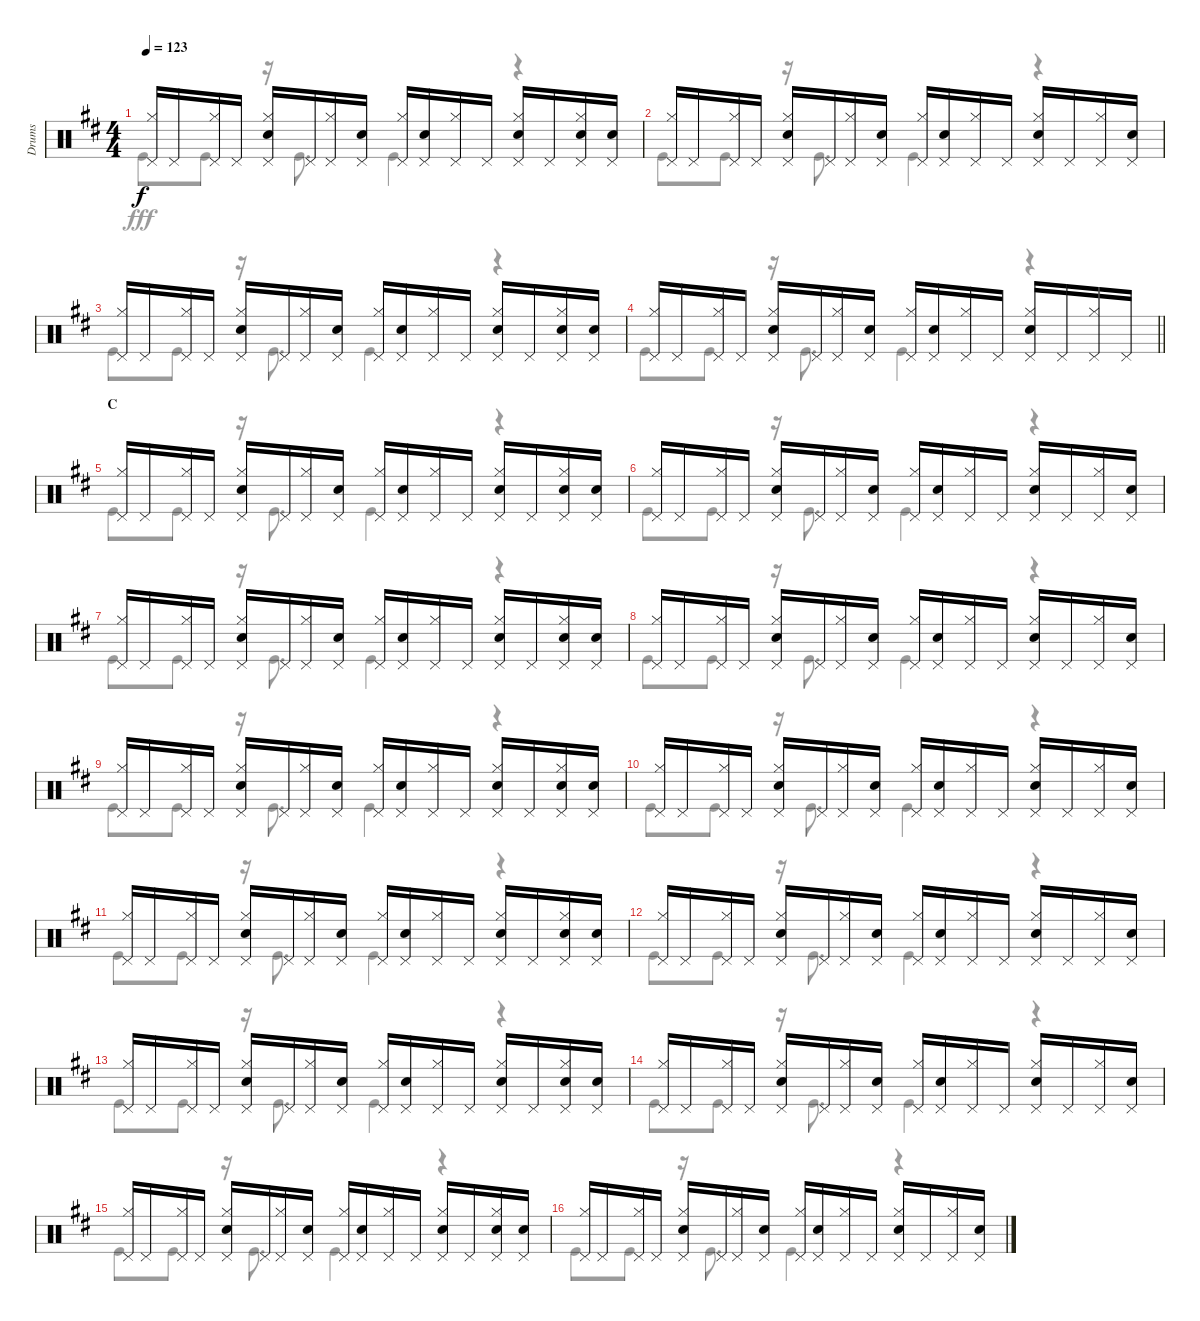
\track ("Drums" "Drums") {instrument percussion}
\staff {score}
\articulation defaults
\voice
\ts (4 4)
\tempo 123
\clef neutral
\ks d
("Hi-Hat (closed)" "Pedal Hi-Hat (hit)").16{dy f} "Pedal Hi-Hat (hit)".16 ("Hi-Hat (closed)" "Pedal Hi-Hat (hit)").16 "Pedal Hi-Hat (hit)".16 ("Hi-Hat (closed)" "Snare (hit) 2" "Pedal Hi-Hat (hit)").16 "Pedal Hi-Hat (hit)".16 ("Hi-Hat (closed)" "Pedal Hi-Hat (hit)").16 ("Pedal Hi-Hat (hit)" "Snare (hit) 2").16 ("Hi-Hat (closed)" "Pedal Hi-Hat (hit)").16 ("Pedal Hi-Hat (hit)" "Snare (hit) 2").16 ("Hi-Hat (closed)" "Pedal Hi-Hat (hit)").16 "Pedal Hi-Hat (hit)".16 ("Hi-Hat (closed)" "Snare (hit) 2" "Pedal Hi-Hat (hit)").16 "Pedal Hi-Hat (hit)".16 ("Hi-Hat (closed)" "Snare (hit) 2" "Pedal Hi-Hat (hit)").16 ("Pedal Hi-Hat (hit)" "Snare (hit) 2").16 |
("Hi-Hat (closed)" "Pedal Hi-Hat (hit)").16 "Pedal Hi-Hat (hit)".16 ("Hi-Hat (closed)" "Pedal Hi-Hat (hit)").16 "Pedal Hi-Hat (hit)".16 ("Hi-Hat (closed)" "Snare (hit) 2" "Pedal Hi-Hat (hit)").16 "Pedal Hi-Hat (hit)".16 ("Hi-Hat (closed)" "Pedal Hi-Hat (hit)").16 ("Pedal Hi-Hat (hit)" "Snare (hit) 2").16 ("Hi-Hat (closed)" "Pedal Hi-Hat (hit)").16 ("Pedal Hi-Hat (hit)" "Snare (hit) 2").16 ("Hi-Hat (closed)" "Pedal Hi-Hat (hit)").16 "Pedal Hi-Hat (hit)".16 ("Hi-Hat (closed)" "Snare (hit) 2" "Pedal Hi-Hat (hit)").16 "Pedal Hi-Hat (hit)".16 ("Hi-Hat (closed)" "Pedal Hi-Hat (hit)").16 ("Pedal Hi-Hat (hit)" "Snare (hit) 2").16 |
("Hi-Hat (closed)" "Pedal Hi-Hat (hit)").16 "Pedal Hi-Hat (hit)".16 ("Hi-Hat (closed)" "Pedal Hi-Hat (hit)").16 "Pedal Hi-Hat (hit)".16 ("Hi-Hat (closed)" "Snare (hit) 2" "Pedal Hi-Hat (hit)").16 "Pedal Hi-Hat (hit)".16 ("Hi-Hat (closed)" "Pedal Hi-Hat (hit)").16 ("Pedal Hi-Hat (hit)" "Snare (hit) 2").16 ("Hi-Hat (closed)" "Pedal Hi-Hat (hit)").16 ("Pedal Hi-Hat (hit)" "Snare (hit) 2").16 ("Hi-Hat (closed)" "Pedal Hi-Hat (hit)").16 "Pedal Hi-Hat (hit)".16 ("Hi-Hat (closed)" "Snare (hit) 2" "Pedal Hi-Hat (hit)").16 "Pedal Hi-Hat (hit)".16 ("Hi-Hat (closed)" "Snare (hit) 2" "Pedal Hi-Hat (hit)").16 ("Pedal Hi-Hat (hit)" "Snare (hit) 2").16 |
\barLineRight lightlight
("Hi-Hat (closed)" "Pedal Hi-Hat (hit)").16 "Pedal Hi-Hat (hit)".16 ("Hi-Hat (closed)" "Pedal Hi-Hat (hit)").16 "Pedal Hi-Hat (hit)".16 ("Hi-Hat (closed)" "Snare (hit) 2" "Pedal Hi-Hat (hit)").16 "Pedal Hi-Hat (hit)".16 ("Hi-Hat (closed)" "Pedal Hi-Hat (hit)").16 ("Pedal Hi-Hat (hit)" "Snare (hit) 2").16 ("Hi-Hat (closed)" "Pedal Hi-Hat (hit)").16 ("Pedal Hi-Hat (hit)" "Snare (hit) 2").16 ("Hi-Hat (closed)" "Pedal Hi-Hat (hit)").16 "Pedal Hi-Hat (hit)".16 ("Hi-Hat (closed)" "Snare (hit) 2" "Pedal Hi-Hat (hit)").16 "Pedal Hi-Hat (hit)".16 ("Hi-Hat (closed)" "Pedal Hi-Hat (hit)").16 "Pedal Hi-Hat (hit)".16 |
\section ("" "C")
("Hi-Hat (closed)" "Pedal Hi-Hat (hit)").16 "Pedal Hi-Hat (hit)".16 ("Hi-Hat (closed)" "Pedal Hi-Hat (hit)").16 "Pedal Hi-Hat (hit)".16 ("Hi-Hat (closed)" "Snare (hit) 2" "Pedal Hi-Hat (hit)").16 "Pedal Hi-Hat (hit)".16 ("Hi-Hat (closed)" "Pedal Hi-Hat (hit)").16 ("Pedal Hi-Hat (hit)" "Snare (hit) 2").16 ("Hi-Hat (closed)" "Pedal Hi-Hat (hit)").16 ("Pedal Hi-Hat (hit)" "Snare (hit) 2").16 ("Hi-Hat (closed)" "Pedal Hi-Hat (hit)").16 "Pedal Hi-Hat (hit)".16 ("Hi-Hat (closed)" "Snare (hit) 2" "Pedal Hi-Hat (hit)").16 "Pedal Hi-Hat (hit)".16 ("Hi-Hat (closed)" "Snare (hit) 2" "Pedal Hi-Hat (hit)").16 ("Pedal Hi-Hat (hit)" "Snare (hit) 2").16 |
("Hi-Hat (closed)" "Pedal Hi-Hat (hit)").16 "Pedal Hi-Hat (hit)".16 ("Hi-Hat (closed)" "Pedal Hi-Hat (hit)").16 "Pedal Hi-Hat (hit)".16 ("Hi-Hat (closed)" "Snare (hit) 2" "Pedal Hi-Hat (hit)").16 "Pedal Hi-Hat (hit)".16 ("Hi-Hat (closed)" "Pedal Hi-Hat (hit)").16 ("Pedal Hi-Hat (hit)" "Snare (hit) 2").16 ("Hi-Hat (closed)" "Pedal Hi-Hat (hit)").16 ("Pedal Hi-Hat (hit)" "Snare (hit) 2").16 ("Hi-Hat (closed)" "Pedal Hi-Hat (hit)").16 "Pedal Hi-Hat (hit)".16 ("Hi-Hat (closed)" "Snare (hit) 2" "Pedal Hi-Hat (hit)").16 "Pedal Hi-Hat (hit)".16 ("Hi-Hat (closed)" "Pedal Hi-Hat (hit)").16 ("Pedal Hi-Hat (hit)" "Snare (hit) 2").16 |
("Hi-Hat (closed)" "Pedal Hi-Hat (hit)").16 "Pedal Hi-Hat (hit)".16 ("Hi-Hat (closed)" "Pedal Hi-Hat (hit)").16 "Pedal Hi-Hat (hit)".16 ("Hi-Hat (closed)" "Snare (hit) 2" "Pedal Hi-Hat (hit)").16 "Pedal Hi-Hat (hit)".16 ("Hi-Hat (closed)" "Pedal Hi-Hat (hit)").16 ("Pedal Hi-Hat (hit)" "Snare (hit) 2").16 ("Hi-Hat (closed)" "Pedal Hi-Hat (hit)").16 ("Pedal Hi-Hat (hit)" "Snare (hit) 2").16 ("Hi-Hat (closed)" "Pedal Hi-Hat (hit)").16 "Pedal Hi-Hat (hit)".16 ("Hi-Hat (closed)" "Snare (hit) 2" "Pedal Hi-Hat (hit)").16 "Pedal Hi-Hat (hit)".16 ("Hi-Hat (closed)" "Snare (hit) 2" "Pedal Hi-Hat (hit)").16 ("Pedal Hi-Hat (hit)" "Snare (hit) 2").16 |
("Hi-Hat (closed)" "Pedal Hi-Hat (hit)").16 "Pedal Hi-Hat (hit)".16 ("Hi-Hat (closed)" "Pedal Hi-Hat (hit)").16 "Pedal Hi-Hat (hit)".16 ("Hi-Hat (closed)" "Snare (hit) 2" "Pedal Hi-Hat (hit)").16 "Pedal Hi-Hat (hit)".16 ("Hi-Hat (closed)" "Pedal Hi-Hat (hit)").16 ("Pedal Hi-Hat (hit)" "Snare (hit) 2").16 ("Hi-Hat (closed)" "Pedal Hi-Hat (hit)").16 ("Pedal Hi-Hat (hit)" "Snare (hit) 2").16 ("Hi-Hat (closed)" "Pedal Hi-Hat (hit)").16 "Pedal Hi-Hat (hit)".16 ("Hi-Hat (closed)" "Snare (hit) 2" "Pedal Hi-Hat (hit)").16 "Pedal Hi-Hat (hit)".16 ("Hi-Hat (closed)" "Pedal Hi-Hat (hit)").16 ("Pedal Hi-Hat (hit)" "Snare (hit) 2").16 |
("Hi-Hat (closed)" "Pedal Hi-Hat (hit)").16 "Pedal Hi-Hat (hit)".16 ("Hi-Hat (closed)" "Pedal Hi-Hat (hit)").16 "Pedal Hi-Hat (hit)".16 ("Hi-Hat (closed)" "Snare (hit) 2" "Pedal Hi-Hat (hit)").16 "Pedal Hi-Hat (hit)".16 ("Hi-Hat (closed)" "Pedal Hi-Hat (hit)").16 ("Pedal Hi-Hat (hit)" "Snare (hit) 2").16 ("Hi-Hat (closed)" "Pedal Hi-Hat (hit)").16 ("Pedal Hi-Hat (hit)" "Snare (hit) 2").16 ("Hi-Hat (closed)" "Pedal Hi-Hat (hit)").16 "Pedal Hi-Hat (hit)".16 ("Hi-Hat (closed)" "Snare (hit) 2" "Pedal Hi-Hat (hit)").16 "Pedal Hi-Hat (hit)".16 ("Hi-Hat (closed)" "Snare (hit) 2" "Pedal Hi-Hat (hit)").16 ("Pedal Hi-Hat (hit)" "Snare (hit) 2").16 |
("Hi-Hat (closed)" "Pedal Hi-Hat (hit)").16 "Pedal Hi-Hat (hit)".16 ("Hi-Hat (closed)" "Pedal Hi-Hat (hit)").16 "Pedal Hi-Hat (hit)".16 ("Hi-Hat (closed)" "Snare (hit) 2" "Pedal Hi-Hat (hit)").16 "Pedal Hi-Hat (hit)".16 ("Hi-Hat (closed)" "Pedal Hi-Hat (hit)").16 ("Pedal Hi-Hat (hit)" "Snare (hit) 2").16 ("Hi-Hat (closed)" "Pedal Hi-Hat (hit)").16 ("Pedal Hi-Hat (hit)" "Snare (hit) 2").16 ("Hi-Hat (closed)" "Pedal Hi-Hat (hit)").16 "Pedal Hi-Hat (hit)".16 ("Hi-Hat (closed)" "Snare (hit) 2" "Pedal Hi-Hat (hit)").16 "Pedal Hi-Hat (hit)".16 ("Hi-Hat (closed)" "Pedal Hi-Hat (hit)").16 ("Pedal Hi-Hat (hit)" "Snare (hit) 2").16 |
("Hi-Hat (closed)" "Pedal Hi-Hat (hit)").16 "Pedal Hi-Hat (hit)".16 ("Hi-Hat (closed)" "Pedal Hi-Hat (hit)").16 "Pedal Hi-Hat (hit)".16 ("Hi-Hat (closed)" "Snare (hit) 2" "Pedal Hi-Hat (hit)").16 "Pedal Hi-Hat (hit)".16 ("Hi-Hat (closed)" "Pedal Hi-Hat (hit)").16 ("Pedal Hi-Hat (hit)" "Snare (hit) 2").16 ("Hi-Hat (closed)" "Pedal Hi-Hat (hit)").16 ("Pedal Hi-Hat (hit)" "Snare (hit) 2").16 ("Hi-Hat (closed)" "Pedal Hi-Hat (hit)").16 "Pedal Hi-Hat (hit)".16 ("Hi-Hat (closed)" "Snare (hit) 2" "Pedal Hi-Hat (hit)").16 "Pedal Hi-Hat (hit)".16 ("Hi-Hat (closed)" "Snare (hit) 2" "Pedal Hi-Hat (hit)").16 ("Pedal Hi-Hat (hit)" "Snare (hit) 2").16 |
("Hi-Hat (closed)" "Pedal Hi-Hat (hit)").16 "Pedal Hi-Hat (hit)".16 ("Hi-Hat (closed)" "Pedal Hi-Hat (hit)").16 "Pedal Hi-Hat (hit)".16 ("Hi-Hat (closed)" "Snare (hit) 2" "Pedal Hi-Hat (hit)").16 "Pedal Hi-Hat (hit)".16 ("Hi-Hat (closed)" "Pedal Hi-Hat (hit)").16 ("Pedal Hi-Hat (hit)" "Snare (hit) 2").16 ("Hi-Hat (closed)" "Pedal Hi-Hat (hit)").16 ("Pedal Hi-Hat (hit)" "Snare (hit) 2").16 ("Hi-Hat (closed)" "Pedal Hi-Hat (hit)").16 "Pedal Hi-Hat (hit)".16 ("Hi-Hat (closed)" "Snare (hit) 2" "Pedal Hi-Hat (hit)").16 "Pedal Hi-Hat (hit)".16 ("Hi-Hat (closed)" "Pedal Hi-Hat (hit)").16 ("Pedal Hi-Hat (hit)" "Snare (hit) 2").16 |
("Hi-Hat (closed)" "Pedal Hi-Hat (hit)").16 "Pedal Hi-Hat (hit)".16 ("Hi-Hat (closed)" "Pedal Hi-Hat (hit)").16 "Pedal Hi-Hat (hit)".16 ("Hi-Hat (closed)" "Snare (hit) 2" "Pedal Hi-Hat (hit)").16 "Pedal Hi-Hat (hit)".16 ("Hi-Hat (closed)" "Pedal Hi-Hat (hit)").16 ("Pedal Hi-Hat (hit)" "Snare (hit) 2").16 ("Hi-Hat (closed)" "Pedal Hi-Hat (hit)").16 ("Pedal Hi-Hat (hit)" "Snare (hit) 2").16 ("Hi-Hat (closed)" "Pedal Hi-Hat (hit)").16 "Pedal Hi-Hat (hit)".16 ("Hi-Hat (closed)" "Snare (hit) 2" "Pedal Hi-Hat (hit)").16 "Pedal Hi-Hat (hit)".16 ("Hi-Hat (closed)" "Snare (hit) 2" "Pedal Hi-Hat (hit)").16 ("Pedal Hi-Hat (hit)" "Snare (hit) 2").16 |
("Hi-Hat (closed)" "Pedal Hi-Hat (hit)").16 "Pedal Hi-Hat (hit)".16 ("Hi-Hat (closed)" "Pedal Hi-Hat (hit)").16 "Pedal Hi-Hat (hit)".16 ("Hi-Hat (closed)" "Snare (hit) 2" "Pedal Hi-Hat (hit)").16 "Pedal Hi-Hat (hit)".16 ("Hi-Hat (closed)" "Pedal Hi-Hat (hit)").16 ("Pedal Hi-Hat (hit)" "Snare (hit) 2").16 ("Hi-Hat (closed)" "Pedal Hi-Hat (hit)").16 ("Pedal Hi-Hat (hit)" "Snare (hit) 2").16 ("Hi-Hat (closed)" "Pedal Hi-Hat (hit)").16 "Pedal Hi-Hat (hit)".16 ("Hi-Hat (closed)" "Snare (hit) 2" "Pedal Hi-Hat (hit)").16 "Pedal Hi-Hat (hit)".16 ("Hi-Hat (closed)" "Pedal Hi-Hat (hit)").16 ("Pedal Hi-Hat (hit)" "Snare (hit) 2").16 |
("Hi-Hat (closed)" "Pedal Hi-Hat (hit)").16 "Pedal Hi-Hat (hit)".16 ("Hi-Hat (closed)" "Pedal Hi-Hat (hit)").16 "Pedal Hi-Hat (hit)".16 ("Hi-Hat (closed)" "Snare (hit) 2" "Pedal Hi-Hat (hit)").16 "Pedal Hi-Hat (hit)".16 ("Hi-Hat (closed)" "Pedal Hi-Hat (hit)").16 ("Pedal Hi-Hat (hit)" "Snare (hit) 2").16 ("Hi-Hat (closed)" "Pedal Hi-Hat (hit)").16 ("Pedal Hi-Hat (hit)" "Snare (hit) 2").16 ("Hi-Hat (closed)" "Pedal Hi-Hat (hit)").16 "Pedal Hi-Hat (hit)".16 ("Hi-Hat (closed)" "Snare (hit) 2" "Pedal Hi-Hat (hit)").16 "Pedal Hi-Hat (hit)".16 ("Hi-Hat (closed)" "Snare (hit) 2" "Pedal Hi-Hat (hit)").16 ("Pedal Hi-Hat (hit)" "Snare (hit) 2").16 |
("Hi-Hat (closed)" "Pedal Hi-Hat (hit)").16 "Pedal Hi-Hat (hit)".16 ("Hi-Hat (closed)" "Pedal Hi-Hat (hit)").16 "Pedal Hi-Hat (hit)".16 ("Hi-Hat (closed)" "Snare (hit) 2" "Pedal Hi-Hat (hit)").16 "Pedal Hi-Hat (hit)".16 ("Hi-Hat (closed)" "Pedal Hi-Hat (hit)").16 ("Pedal Hi-Hat (hit)" "Snare (hit) 2").16 ("Hi-Hat (closed)" "Pedal Hi-Hat (hit)").16 ("Pedal Hi-Hat (hit)" "Snare (hit) 2").16 ("Hi-Hat (closed)" "Pedal Hi-Hat (hit)").16 "Pedal Hi-Hat (hit)".16 ("Hi-Hat (closed)" "Snare (hit) 2" "Pedal Hi-Hat (hit)").16 "Pedal Hi-Hat (hit)".16 ("Hi-Hat (closed)" "Pedal Hi-Hat (hit)").16 ("Pedal Hi-Hat (hit)" "Snare (hit) 2").16
\voice
\clef neutral
\ottava regular
\simile none
\ks d "Kick (hit)".8{dy fff} "Kick (hit)".8
r.16 "Kick (hit)".8{d} "Kick (hit)".4 r.4 |
"Kick (hit)".8 "Kick (hit)".8 r.16 "Kick (hit)".8{d} "Kick (hit)".4 r.4 |
"Kick (hit)".8 "Kick (hit)".8 r.16 "Kick (hit)".8{d} "Kick (hit)".4 r.4 |
\barLineRight lightlight "Kick (hit)".8 "Kick (hit)".8
r.16 "Kick (hit)".8{d} "Kick (hit)".4 r.4 |
"Kick (hit)".8 "Kick (hit)".8 r.16 "Kick (hit)".8{d} "Kick (hit)".4 r.4 |
"Kick (hit)".8 "Kick (hit)".8 r.16 "Kick (hit)".8{d} "Kick (hit)".4 r.4 |
"Kick (hit)".8 "Kick (hit)".8 r.16 "Kick (hit)".8{d} "Kick (hit)".4 r.4 |
"Kick (hit)".8 "Kick (hit)".8 r.16 "Kick (hit)".8{d} "Kick (hit)".4 r.4 |
"Kick (hit)".8 "Kick (hit)".8 r.16 "Kick (hit)".8{d} "Kick (hit)".4 r.4 |
"Kick (hit)".8 "Kick (hit)".8 r.16 "Kick (hit)".8{d} "Kick (hit)".4 r.4 |
"Kick (hit)".8 "Kick (hit)".8 r.16 "Kick (hit)".8{d} "Kick (hit)".4 r.4 |
"Kick (hit)".8 "Kick (hit)".8 r.16 "Kick (hit)".8{d} "Kick (hit)".4 r.4 |
"Kick (hit)".8 "Kick (hit)".8 r.16 "Kick (hit)".8{d} "Kick (hit)".4 r.4 |
"Kick (hit)".8 "Kick (hit)".8 r.16 "Kick (hit)".8{d} "Kick (hit)".4 r.4 |
"Kick (hit)".8 "Kick (hit)".8 r.16 "Kick (hit)".8{d} "Kick (hit)".4 r.4 |
"Kick (hit)".8 "Kick (hit)".8 r.16 "Kick (hit)".8{d} "Kick (hit)".4 r.4
